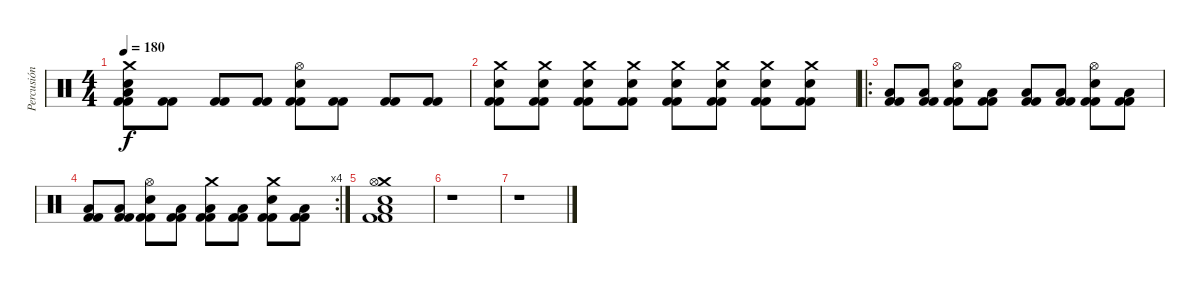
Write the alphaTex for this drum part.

\track ("Percusión" "Percusión") {instrument percussion}
\staff {score}
\articulation defaults
\ts (4 4)
\tempo 180
\clef neutral
\ks c
("Crash medium (hit)" "Kick (hit) 2" "Kick (hit) 2" "Snare (hit) 2" "Low Floor Tom (hit)").8{dy f} ("Kick (hit) 2" "Kick (hit) 2").8 ("Kick (hit) 2" "Kick (hit) 2").8 ("Kick (hit) 2" "Kick (hit) 2").8 ("Hi-Hat (open)" "Kick (hit) 2" "Kick (hit) 2" "Snare (hit) 2").8 ("Kick (hit) 2" "Kick (hit) 2").8 ("Kick (hit) 2" "Kick (hit) 2").8 ("Kick (hit) 2" "Kick (hit) 2").8 |
("Crash medium (hit)" "Kick (hit) 2" "Kick (hit) 2" "Snare (hit) 2").8 ("Crash medium (hit)" "Kick (hit) 2" "Kick (hit) 2" "Snare (hit) 2").8 ("Crash medium (hit)" "Kick (hit) 2" "Kick (hit) 2" "Snare (hit) 2").8 ("Crash medium (hit)" "Kick (hit) 2" "Kick (hit) 2" "Snare (hit) 2").8 ("Crash medium (hit)" "Kick (hit) 2" "Kick (hit) 2" "Snare (hit) 2").8 ("Crash medium (hit)" "Kick (hit) 2" "Kick (hit) 2" "Snare (hit) 2").8 ("Crash medium (hit)" "Kick (hit) 2" "Kick (hit) 2" "Snare (hit) 2").8 ("Crash medium (hit)" "Kick (hit) 2" "Kick (hit) 2" "Snare (hit) 2").8 |
\ro
("Kick (hit) 2" "Kick (hit) 2" "Low Floor Tom (hit)").8 ("Kick (hit) 2" "Kick (hit) 2" "Low Floor Tom (hit)").8 ("Hi-Hat (open)" "Kick (hit) 2" "Kick (hit) 2" "Snare (hit) 2").8 ("Kick (hit) 2" "Kick (hit) 2" "Low Floor Tom (hit)").8 ("Kick (hit) 2" "Kick (hit) 2" "Low Floor Tom (hit)").8 ("Kick (hit) 2" "Kick (hit) 2" "Low Floor Tom (hit)").8 ("Hi-Hat (open)" "Kick (hit) 2" "Kick (hit) 2" "Snare (hit) 2").8 ("Kick (hit) 2" "Kick (hit) 2" "Low Floor Tom (hit)").8 |
\rc 4
("Kick (hit) 2" "Kick (hit) 2" "Low Floor Tom (hit)").8 ("Kick (hit) 2" "Kick (hit) 2" "Low Floor Tom (hit)").8 ("Hi-Hat (open)" "Kick (hit) 2" "Kick (hit) 2" "Snare (hit) 2").8 ("Kick (hit) 2" "Kick (hit) 2" "Low Floor Tom (hit)").8 ("Crash medium (hit)" "Kick (hit) 2" "Kick (hit) 2" "Low Floor Tom (hit)").8 ("Kick (hit) 2" "Kick (hit) 2" "Low Floor Tom (hit)").8 ("Crash medium (hit)" "Kick (hit) 2" "Kick (hit) 2" "Snare (hit) 2").8 ("Kick (hit) 2" "Kick (hit) 2" "Low Floor Tom (hit)").8 |
("Crash medium (hit)" "Hi-Hat (open)" "Kick (hit) 2" "Kick (hit) 2" "Low Floor Tom (hit)" "Snare (hit) 2").1 |
r.1 |
r.1
